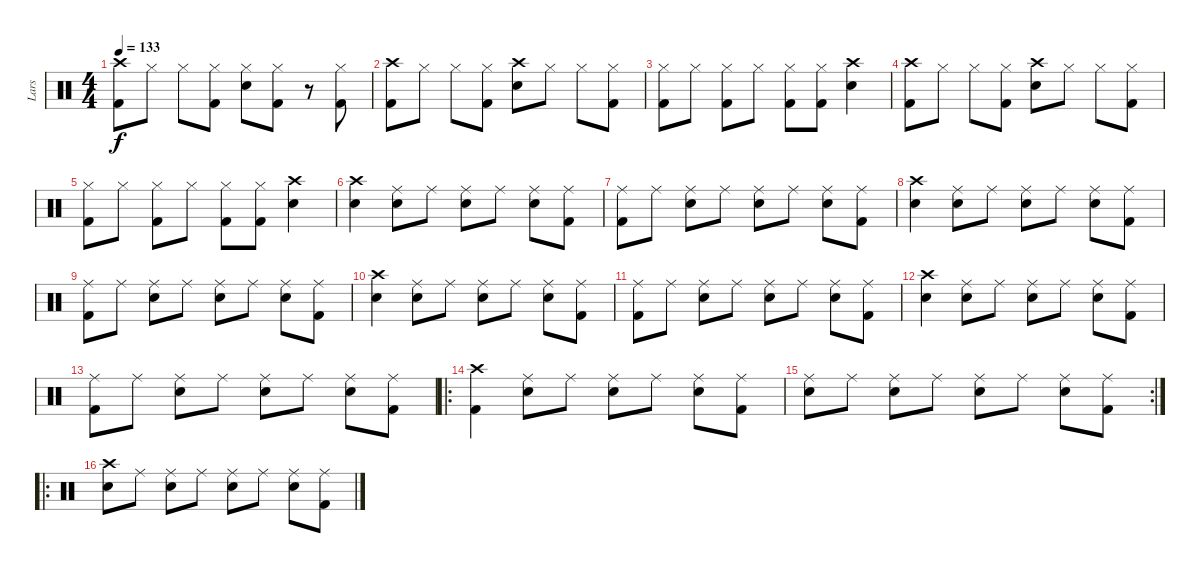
\track ("Lars" "Lars") {instrument percussion}
\staff {score}
\articulation defaults
\ts (4 4)
\tempo 133
\clef neutral
\ks c
("Crash high (hit)" "Kick (hit) 2").8{dy f} "Hi-Hat (closed)".8 "Hi-Hat (closed)".8 ("Hi-Hat (closed)" "Kick (hit) 2").8 ("Hi-Hat (closed)" "Electric Snare (hit)").8 ("Hi-Hat (closed)" "Kick (hit) 2").8 r.8 ("Hi-Hat (closed)" "Kick (hit) 2").8 |
("Crash high (hit)" "Kick (hit) 2").8 "Hi-Hat (closed)".8 "Hi-Hat (closed)".8 ("Hi-Hat (closed)" "Kick (hit) 2").8 ("Crash high (hit)" "Electric Snare (hit)").8 "Hi-Hat (closed)".8 "Hi-Hat (closed)".8 ("Hi-Hat (closed)" "Kick (hit) 2").8 |
("Hi-Hat (closed)" "Kick (hit) 2").8 "Hi-Hat (closed)".8 ("Hi-Hat (closed)" "Kick (hit) 2").8 "Hi-Hat (closed)".8 ("Hi-Hat (closed)" "Kick (hit) 2").8 ("Hi-Hat (closed)" "Kick (hit) 2").8 ("Crash high (hit)" "Electric Snare (hit)").4 |
("Crash high (hit)" "Kick (hit) 2").8 "Hi-Hat (closed)".8 "Hi-Hat (closed)".8 ("Hi-Hat (closed)" "Kick (hit) 2").8 ("Crash high (hit)" "Electric Snare (hit)").8 "Hi-Hat (closed)".8 "Hi-Hat (closed)".8 ("Hi-Hat (closed)" "Kick (hit) 2").8 |
("Hi-Hat (closed)" "Kick (hit) 2").8 "Hi-Hat (closed)".8 ("Hi-Hat (closed)" "Kick (hit) 2").8 "Hi-Hat (closed)".8 ("Hi-Hat (closed)" "Kick (hit) 2").8 ("Hi-Hat (closed)" "Kick (hit) 2").8 ("Crash high (hit)" "Electric Snare (hit)").4 |
("Crash high (hit)" "Electric Snare (hit)").4 ("Ride (middle)" "Electric Snare (hit)").8 "Ride (middle)".8 ("Ride (middle)" "Electric Snare (hit)").8 "Ride (middle)".8 ("Ride (middle)" "Electric Snare (hit)").8 ("Ride (middle)" "Kick (hit) 2").8 |
("Ride (middle)" "Kick (hit) 2").8 "Ride (middle)".8 ("Ride (middle)" "Electric Snare (hit)").8 "Ride (middle)".8 ("Ride (middle)" "Electric Snare (hit)").8 "Ride (middle)".8 ("Ride (middle)" "Electric Snare (hit)").8 ("Ride (middle)" "Kick (hit) 2").8 |
("Crash high (hit)" "Electric Snare (hit)").4 ("Ride (middle)" "Electric Snare (hit)").8 "Ride (middle)".8 ("Ride (middle)" "Electric Snare (hit)").8 "Ride (middle)".8 ("Ride (middle)" "Electric Snare (hit)").8 ("Ride (middle)" "Kick (hit) 2").8 |
("Ride (middle)" "Kick (hit) 2").8 "Ride (middle)".8 ("Ride (middle)" "Electric Snare (hit)").8 "Ride (middle)".8 ("Ride (middle)" "Electric Snare (hit)").8 "Ride (middle)".8 ("Ride (middle)" "Electric Snare (hit)").8 ("Ride (middle)" "Kick (hit) 2").8 |
("Crash high (hit)" "Electric Snare (hit)").4 ("Ride (middle)" "Electric Snare (hit)").8 "Ride (middle)".8 ("Ride (middle)" "Electric Snare (hit)").8 "Ride (middle)".8 ("Ride (middle)" "Electric Snare (hit)").8 ("Ride (middle)" "Kick (hit) 2").8 |
("Ride (middle)" "Kick (hit) 2").8 "Ride (middle)".8 ("Ride (middle)" "Electric Snare (hit)").8 "Ride (middle)".8 ("Ride (middle)" "Electric Snare (hit)").8 "Ride (middle)".8 ("Ride (middle)" "Electric Snare (hit)").8 ("Ride (middle)" "Kick (hit) 2").8 |
("Crash high (hit)" "Electric Snare (hit)").4 ("Ride (middle)" "Electric Snare (hit)").8 "Ride (middle)".8 ("Ride (middle)" "Electric Snare (hit)").8 "Ride (middle)".8 ("Ride (middle)" "Electric Snare (hit)").8 ("Ride (middle)" "Kick (hit) 2").8 |
("Ride (middle)" "Kick (hit) 2").8 "Ride (middle)".8 ("Ride (middle)" "Electric Snare (hit)").8 "Ride (middle)".8 ("Ride (middle)" "Electric Snare (hit)").8 "Ride (middle)".8 ("Ride (middle)" "Electric Snare (hit)").8 ("Ride (middle)" "Kick (hit) 2").8 |
\ro
("Crash high (hit)" "Kick (hit) 2").4 ("Ride (middle)" "Electric Snare (hit)").8 "Ride (middle)".8 ("Ride (middle)" "Electric Snare (hit)").8 "Ride (middle)".8 ("Ride (middle)" "Electric Snare (hit)").8 ("Ride (middle)" "Kick (hit) 2").8 |
\rc 2
("Ride (middle)" "Electric Snare (hit)").8 "Ride (middle)".8 ("Ride (middle)" "Electric Snare (hit)").8 "Ride (middle)".8 ("Ride (middle)" "Electric Snare (hit)").8 "Ride (middle)".8 ("Ride (middle)" "Electric Snare (hit)").8 ("Ride (middle)" "Kick (hit) 2").8 |
\ro
("Crash high (hit)" "Electric Snare (hit)").8 "Ride (middle)".8 ("Ride (middle)" "Electric Snare (hit)").8 "Ride (middle)".8 ("Ride (middle)" "Electric Snare (hit)").8 "Ride (middle)".8 ("Ride (middle)" "Electric Snare (hit)").8 ("Ride (middle)" "Kick (hit) 2").8
